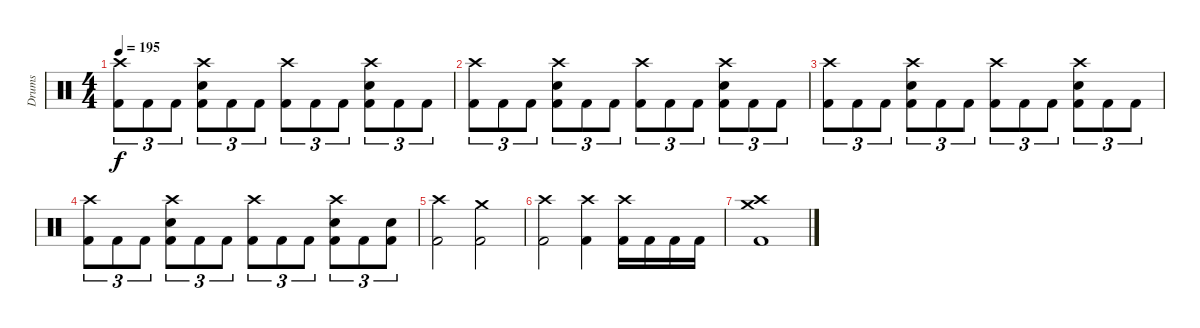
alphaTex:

\track ("Drums" "Drums") {instrument percussion}
\staff {score}
\articulation defaults
\ts (4 4)
\tempo 195
\clef neutral
\ks c
("Crash high (hit)" "Kick (hit) 2").8{tu (3 2) dy f} "Kick (hit) 2".8{tu (3 2)} "Kick (hit) 2".8{tu (3 2)} ("Crash high (hit)" "Snare (hit) 2" "Kick (hit) 2").8{tu (3 2)} "Kick (hit) 2".8{tu (3 2)} "Kick (hit) 2".8{tu (3 2)} ("Crash high (hit)" "Kick (hit) 2").8{tu (3 2)} "Kick (hit) 2".8{tu (3 2)} "Kick (hit) 2".8{tu (3 2)} ("Crash high (hit)" "Snare (hit) 2" "Kick (hit) 2").8{tu (3 2)} "Kick (hit) 2".8{tu (3 2)} "Kick (hit) 2".8{tu (3 2)} |
("Crash high (hit)" "Kick (hit) 2").8{tu (3 2)} "Kick (hit) 2".8{tu (3 2)} "Kick (hit) 2".8{tu (3 2)} ("Crash high (hit)" "Snare (hit) 2" "Kick (hit) 2").8{tu (3 2)} "Kick (hit) 2".8{tu (3 2)} "Kick (hit) 2".8{tu (3 2)} ("Crash high (hit)" "Kick (hit) 2").8{tu (3 2)} "Kick (hit) 2".8{tu (3 2)} "Kick (hit) 2".8{tu (3 2)} ("Crash high (hit)" "Snare (hit) 2" "Kick (hit) 2").8{tu (3 2)} "Kick (hit) 2".8{tu (3 2)} "Kick (hit) 2".8{tu (3 2)} |
("Crash high (hit)" "Kick (hit) 2").8{tu (3 2)} "Kick (hit) 2".8{tu (3 2)} "Kick (hit) 2".8{tu (3 2)} ("Crash high (hit)" "Snare (hit) 2" "Kick (hit) 2").8{tu (3 2)} "Kick (hit) 2".8{tu (3 2)} "Kick (hit) 2".8{tu (3 2)} ("Crash high (hit)" "Kick (hit) 2").8{tu (3 2)} "Kick (hit) 2".8{tu (3 2)} "Kick (hit) 2".8{tu (3 2)} ("Crash high (hit)" "Snare (hit) 2" "Kick (hit) 2").8{tu (3 2)} "Kick (hit) 2".8{tu (3 2)} "Kick (hit) 2".8{tu (3 2)} |
("Crash high (hit)" "Kick (hit) 2").8{tu (3 2)} "Kick (hit) 2".8{tu (3 2)} "Kick (hit) 2".8{tu (3 2)} ("Crash high (hit)" "Snare (hit) 2" "Kick (hit) 2").8{tu (3 2)} "Kick (hit) 2".8{tu (3 2)} "Kick (hit) 2".8{tu (3 2)} ("Crash high (hit)" "Kick (hit) 2").8{tu (3 2)} "Kick (hit) 2".8{tu (3 2)} "Kick (hit) 2".8{tu (3 2)} ("Crash high (hit)" "Snare (hit) 2" "Kick (hit) 2").8{tu (3 2)} "Kick (hit) 2".8{tu (3 2)} ("Snare (hit) 2" "Kick (hit) 2").8{tu (3 2)} |
("Crash high (hit)" "Kick (hit) 2").2 ("Crash medium (hit)" "Kick (hit) 2").2 |
("Crash high (hit)" "Kick (hit) 2").2 ("Kick (hit) 2" "Crash high (hit)").4 ("Crash high (hit)" "Kick (hit) 2").16 "Kick (hit) 2".16 "Kick (hit) 2".16 "Kick (hit) 2".16 |
("Crash medium (hit)" "Crash high (hit)" "Kick (hit) 2").1
